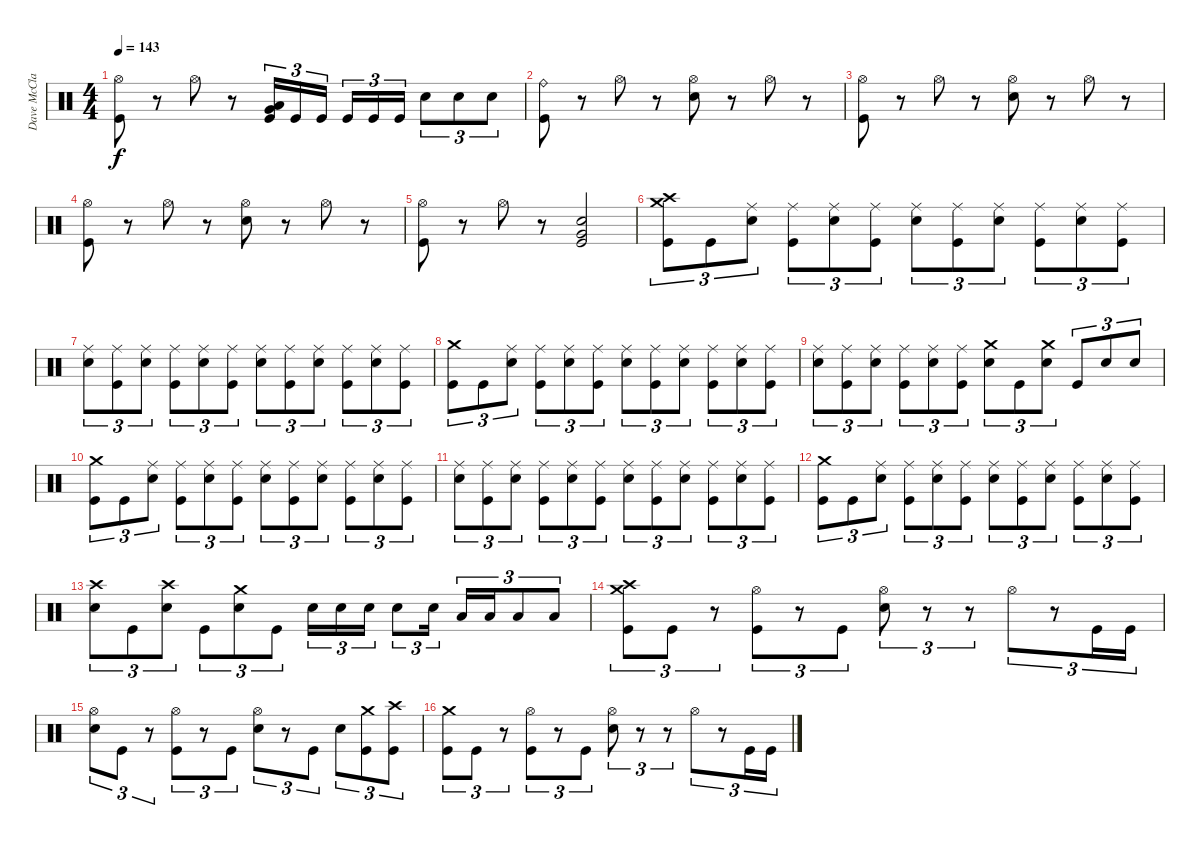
\track ("Dave McClaine" "Dave McCla") {instrument percussion}
\staff {score}
\articulation defaults
\ts (4 4)
\tempo 143
\clef neutral
\ks c
("Kick (hit)" "Hi-Hat (open)").8{dy f} r.8 "Hi-Hat (open)".8 r.8 ("Low Tom (hit)" "Very Low Tom (hit)" "Kick (hit)").16{tu (3 2)} "Kick (hit)".16{tu (3 2)} "Kick (hit)".16{tu (3 2)} "Kick (hit)".16{tu (3 2)} "Kick (hit)".16{tu (3 2)} "Kick (hit)".16{tu (3 2)} "Snare (hit) 2".8{tu (3 2)} "Snare (hit) 2".8{tu (3 2)} "Snare (hit) 2".8{tu (3 2)} |
("Kick (hit)" "Ride (bell)").8 r.8 "Hi-Hat (open)".8 r.8 ("Hi-Hat (open)" "Snare (hit) 2").8 r.8 "Hi-Hat (open)".8 r.8 |
("Kick (hit)" "Hi-Hat (open)").8 r.8 "Hi-Hat (open)".8 r.8 ("Hi-Hat (open)" "Snare (hit) 2").8 r.8 "Hi-Hat (open)".8 r.8 |
("Kick (hit)" "Hi-Hat (open)").8 r.8 "Hi-Hat (open)".8 r.8 ("Hi-Hat (open)" "Snare (hit) 2").8 r.8 "Hi-Hat (open)".8 r.8 |
("Kick (hit)" "Hi-Hat (open)").8 r.8 "Hi-Hat (open)".8 r.8 ("Kick (hit)" "Very Low Tom (hit)" "Snare (hit) 2").2 |
("Crash high (hit)" "Crash medium (hit)" "Kick (hit)").8{tu (3 2)} "Kick (hit)".8{tu (3 2)} ("Snare (hit) 2" "Ride (middle)").8{tu (3 2)} ("Kick (hit)" "Ride (middle)").8{tu (3 2)} ("Snare (hit) 2" "Ride (middle)").8{tu (3 2)} ("Kick (hit)" "Ride (middle)").8{tu (3 2)} ("Snare (hit) 2" "Ride (middle)").8{tu (3 2)} ("Kick (hit)" "Ride (middle)").8{tu (3 2)} ("Snare (hit) 2" "Ride (middle)").8{tu (3 2)} ("Kick (hit)" "Ride (middle)").8{tu (3 2)} ("Snare (hit) 2" "Ride (middle)").8{tu (3 2)} ("Kick (hit)" "Ride (middle)").8{tu (3 2)} |
("Snare (hit) 2" "Ride (middle)").8{tu (3 2)} ("Kick (hit)" "Ride (middle)").8{tu (3 2)} ("Snare (hit) 2" "Ride (middle)").8{tu (3 2)} ("Kick (hit)" "Ride (middle)").8{tu (3 2)} ("Snare (hit) 2" "Ride (middle)").8{tu (3 2)} ("Kick (hit)" "Ride (middle)").8{tu (3 2)} ("Snare (hit) 2" "Ride (middle)").8{tu (3 2)} ("Kick (hit)" "Ride (middle)").8{tu (3 2)} ("Snare (hit) 2" "Ride (middle)").8{tu (3 2)} ("Kick (hit)" "Ride (middle)").8{tu (3 2)} ("Snare (hit) 2" "Ride (middle)").8{tu (3 2)} ("Kick (hit)" "Ride (middle)").8{tu (3 2)} |
("Crash medium (hit)" "Kick (hit)").8{tu (3 2)} "Kick (hit)".8{tu (3 2)} ("Snare (hit) 2" "Ride (middle)").8{tu (3 2)} ("Kick (hit)" "Ride (middle)").8{tu (3 2)} ("Snare (hit) 2" "Ride (middle)").8{tu (3 2)} ("Kick (hit)" "Ride (middle)").8{tu (3 2)} ("Snare (hit) 2" "Ride (middle)").8{tu (3 2)} ("Kick (hit)" "Ride (middle)").8{tu (3 2)} ("Snare (hit) 2" "Ride (middle)").8{tu (3 2)} ("Kick (hit)" "Ride (middle)").8{tu (3 2)} ("Snare (hit) 2" "Ride (middle)").8{tu (3 2)} ("Kick (hit)" "Ride (middle)").8{tu (3 2)} |
("Snare (hit) 2" "Ride (middle)").8{tu (3 2)} ("Kick (hit)" "Ride (middle)").8{tu (3 2)} ("Snare (hit) 2" "Ride (middle)").8{tu (3 2)} ("Kick (hit)" "Ride (middle)").8{tu (3 2)} ("Snare (hit) 2" "Ride (middle)").8{tu (3 2)} ("Kick (hit)" "Ride (middle)").8{tu (3 2)} ("Snare (hit) 2" "Crash medium (hit)").8{tu (3 2)} "Kick (hit)".8{tu (3 2)} ("Snare (hit) 2" "Crash medium (hit)").8{tu (3 2)} "Kick (hit)".8{tu (3 2)} "Snare (hit) 2".8{tu (3 2)} "Snare (hit) 2".8{tu (3 2)} |
("Crash medium (hit)" "Kick (hit)").8{tu (3 2)} "Kick (hit)".8{tu (3 2)} ("Snare (hit) 2" "Ride (middle)").8{tu (3 2)} ("Kick (hit)" "Ride (middle)").8{tu (3 2)} ("Snare (hit) 2" "Ride (middle)").8{tu (3 2)} ("Kick (hit)" "Ride (middle)").8{tu (3 2)} ("Snare (hit) 2" "Ride (middle)").8{tu (3 2)} ("Kick (hit)" "Ride (middle)").8{tu (3 2)} ("Snare (hit) 2" "Ride (middle)").8{tu (3 2)} ("Kick (hit)" "Ride (middle)").8{tu (3 2)} ("Snare (hit) 2" "Ride (middle)").8{tu (3 2)} ("Kick (hit)" "Ride (middle)").8{tu (3 2)} |
("Snare (hit) 2" "Ride (middle)").8{tu (3 2)} ("Kick (hit)" "Ride (middle)").8{tu (3 2)} ("Snare (hit) 2" "Ride (middle)").8{tu (3 2)} ("Kick (hit)" "Ride (middle)").8{tu (3 2)} ("Snare (hit) 2" "Ride (middle)").8{tu (3 2)} ("Kick (hit)" "Ride (middle)").8{tu (3 2)} ("Snare (hit) 2" "Ride (middle)").8{tu (3 2)} ("Kick (hit)" "Ride (middle)").8{tu (3 2)} ("Snare (hit) 2" "Ride (middle)").8{tu (3 2)} ("Kick (hit)" "Ride (middle)").8{tu (3 2)} ("Snare (hit) 2" "Ride (middle)").8{tu (3 2)} ("Kick (hit)" "Ride (middle)").8{tu (3 2)} |
("Crash medium (hit)" "Kick (hit)").8{tu (3 2)} "Kick (hit)".8{tu (3 2)} ("Snare (hit) 2" "Ride (middle)").8{tu (3 2)} ("Kick (hit)" "Ride (middle)").8{tu (3 2)} ("Snare (hit) 2" "Ride (middle)").8{tu (3 2)} ("Kick (hit)" "Ride (middle)").8{tu (3 2)} ("Snare (hit) 2" "Ride (middle)").8{tu (3 2)} ("Kick (hit)" "Ride (middle)").8{tu (3 2)} ("Snare (hit) 2" "Ride (middle)").8{tu (3 2)} ("Kick (hit)" "Ride (middle)").8{tu (3 2)} ("Snare (hit) 2" "Ride (middle)").8{tu (3 2)} ("Kick (hit)" "Ride (middle)").8{tu (3 2)} |
("Snare (hit) 2" "Crash high (hit)").8{tu (3 2)} "Kick (hit)".8{tu (3 2)} ("Snare (hit) 2" "Crash high (hit)").8{tu (3 2)} "Kick (hit)".8{tu (3 2)} ("Snare (hit) 2" "Crash medium (hit)").8{tu (3 2)} "Kick (hit)".8{tu (3 2)} "Snare (hit) 2".16{tu (3 2)} "Snare (hit) 2".16{tu (3 2)} "Snare (hit) 2".16{tu (3 2)} "Snare (hit) 2".8{tu (3 2)} "Snare (hit) 2".16{tu (3 2)} "Low Tom (hit)".16{tu (3 2)} "Low Tom (hit)".16{tu (3 2)} "Low Tom (hit)".8{tu (3 2)} "Low Tom (hit)".8{tu (3 2)} |
("Kick (hit)" "Crash high (hit)" "Crash medium (hit)").8{tu (3 2)} "Kick (hit)".8{tu (3 2)} r.8{tu (3 2)} ("Hi-Hat (open)" "Kick (hit)").8{tu (3 2)} r.8{tu (3 2)} "Kick (hit)".8{tu (3 2)} ("Snare (hit) 2" "Hi-Hat (open)").8{tu (3 2)} r.8{tu (3 2)} r.8{tu (3 2)} "Hi-Hat (open)".8{tu (3 2)} r.8{tu (3 2)} "Kick (hit)".16{tu (3 2)} "Kick (hit)".16{tu (3 2)} |
("Snare (hit) 2" "Hi-Hat (open)").8{tu (3 2)} "Kick (hit)".8{tu (3 2)} r.8{tu (3 2)} ("Hi-Hat (open)" "Kick (hit)").8{tu (3 2)} r.8{tu (3 2)} "Kick (hit)".8{tu (3 2)} ("Snare (hit) 2" "Hi-Hat (open)").8{tu (3 2)} r.8{tu (3 2)} "Kick (hit)".8{tu (3 2)} "Snare (hit) 2".8{tu (3 2)} ("Crash medium (hit)" "Kick (hit)").8{tu (3 2)} ("Crash high (hit)" "Kick (hit)").8{tu (3 2)} |
("Kick (hit)" "Crash medium (hit)").8{tu (3 2)} "Kick (hit)".8{tu (3 2)} r.8{tu (3 2)} ("Hi-Hat (open)" "Kick (hit)").8{tu (3 2)} r.8{tu (3 2)} "Kick (hit)".8{tu (3 2)} ("Snare (hit) 2" "Hi-Hat (open)").8{tu (3 2)} r.8{tu (3 2)} r.8{tu (3 2)} "Hi-Hat (open)".8{tu (3 2)} r.8{tu (3 2)} "Kick (hit)".16{tu (3 2)} "Kick (hit)".16{tu (3 2)}
